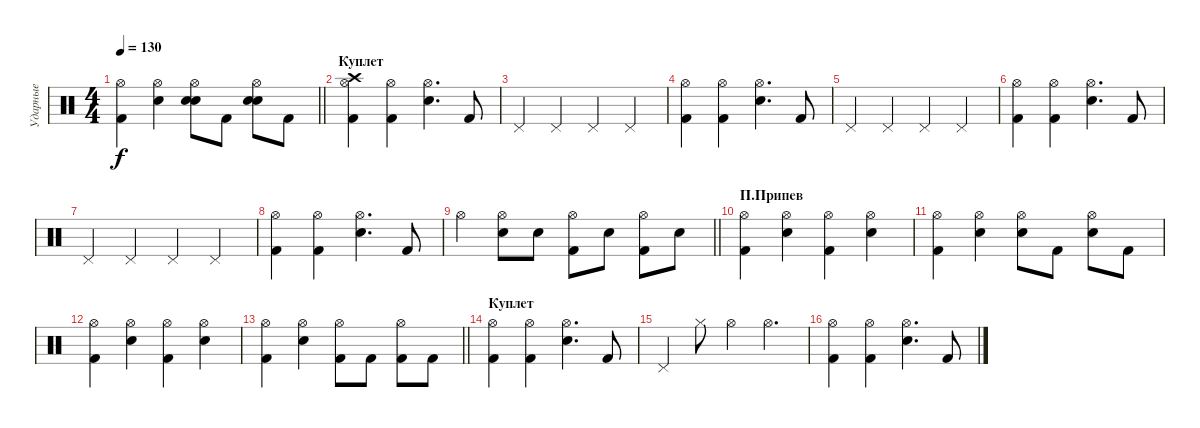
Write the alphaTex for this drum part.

\track ("Ударные" "Ударные") {instrument percussion}
\staff {score}
\articulation defaults
\ts (4 4)
\tempo 130
\clef neutral
\barLineRight lightlight
\ks c
("Hi-Hat (open)" "Kick (hit) 2").4{dy f} ("Hi-Hat (open)" "Snare (hit) 2").4 ("Hi-Hat (open)" "Snare (hit) 2" "Snare (hit) 2").8 "Kick (hit) 2".8 ("Hi-Hat (open)" "Snare (hit) 2" "Snare (hit) 2").8 "Kick (hit) 2".8 |
\section ("" "Куплет")
("Hi-Hat (open)" "Kick (hit) 2" "Crash high (hit)").4 ("Hi-Hat (open)" "Kick (hit) 2").4 ("Hi-Hat (open)" "Snare (hit) 2").4{d} "Kick (hit) 2".8 |
"Pedal Hi-Hat (hit)".4 "Pedal Hi-Hat (hit)".4 "Pedal Hi-Hat (hit)".4 "Pedal Hi-Hat (hit)".4 |
("Hi-Hat (open)" "Kick (hit) 2").4 ("Hi-Hat (open)" "Kick (hit) 2").4 ("Hi-Hat (open)" "Snare (hit) 2").4{d} "Kick (hit) 2".8 |
"Pedal Hi-Hat (hit)".4 "Pedal Hi-Hat (hit)".4 "Pedal Hi-Hat (hit)".4 "Pedal Hi-Hat (hit)".4 |
("Hi-Hat (open)" "Kick (hit) 2").4 ("Hi-Hat (open)" "Kick (hit) 2").4 ("Hi-Hat (open)" "Snare (hit) 2").4{d} "Kick (hit) 2".8 |
"Pedal Hi-Hat (hit)".4 "Pedal Hi-Hat (hit)".4 "Pedal Hi-Hat (hit)".4 "Pedal Hi-Hat (hit)".4 |
("Hi-Hat (open)" "Kick (hit) 2").4 ("Hi-Hat (open)" "Kick (hit) 2").4 ("Hi-Hat (open)" "Snare (hit) 2").4{d} "Kick (hit) 2".8 |
\barLineRight lightlight "Hi-Hat (open)".4
("Electric Snare (hit)" "Hi-Hat (open)").8 "Electric Snare (hit)".8 ("Kick (hit) 2" "Hi-Hat (open)").8 "Snare (hit) 2".8 ("Kick (hit) 2" "Hi-Hat (open)").8 "Snare (hit) 2".8 |
\section ("" "П.Припев")
("Hi-Hat (open)" "Kick (hit) 2").4 ("Hi-Hat (open)" "Snare (hit) 2").4 ("Hi-Hat (open)" "Kick (hit) 2").4 ("Hi-Hat (open)" "Snare (hit) 2").4 |
("Hi-Hat (open)" "Kick (hit) 2").4 ("Hi-Hat (open)" "Snare (hit) 2").4 ("Hi-Hat (open)" "Snare (hit) 2").8 "Kick (hit) 2".8 ("Hi-Hat (open)" "Snare (hit) 2").8 "Kick (hit) 2".8 |
("Hi-Hat (open)" "Kick (hit) 2").4 ("Hi-Hat (open)" "Snare (hit) 2").4 ("Hi-Hat (open)" "Kick (hit) 2").4 ("Hi-Hat (open)" "Snare (hit) 2").4 |
\barLineRight lightlight
("Hi-Hat (open)" "Kick (hit) 2").4 ("Hi-Hat (open)" "Snare (hit) 2").4 ("Hi-Hat (open)" "Kick (hit) 2").8 "Kick (hit) 2".8 ("Hi-Hat (open)" "Kick (hit) 2").8 "Kick (hit) 2".8 |
\section ("" "Куплет")
("Hi-Hat (open)" "Kick (hit) 2").4 ("Hi-Hat (open)" "Kick (hit) 2").4 ("Hi-Hat (open)" "Snare (hit) 2").4{d} "Kick (hit) 2".8 |
"Pedal Hi-Hat (hit)".4 "Hi-Hat (closed)".8 "Hi-Hat (open)".4 "Hi-Hat (open)".4{d} |
("Hi-Hat (open)" "Kick (hit) 2").4 ("Hi-Hat (open)" "Kick (hit) 2").4 ("Hi-Hat (open)" "Snare (hit) 2").4{d} "Kick (hit) 2".8
